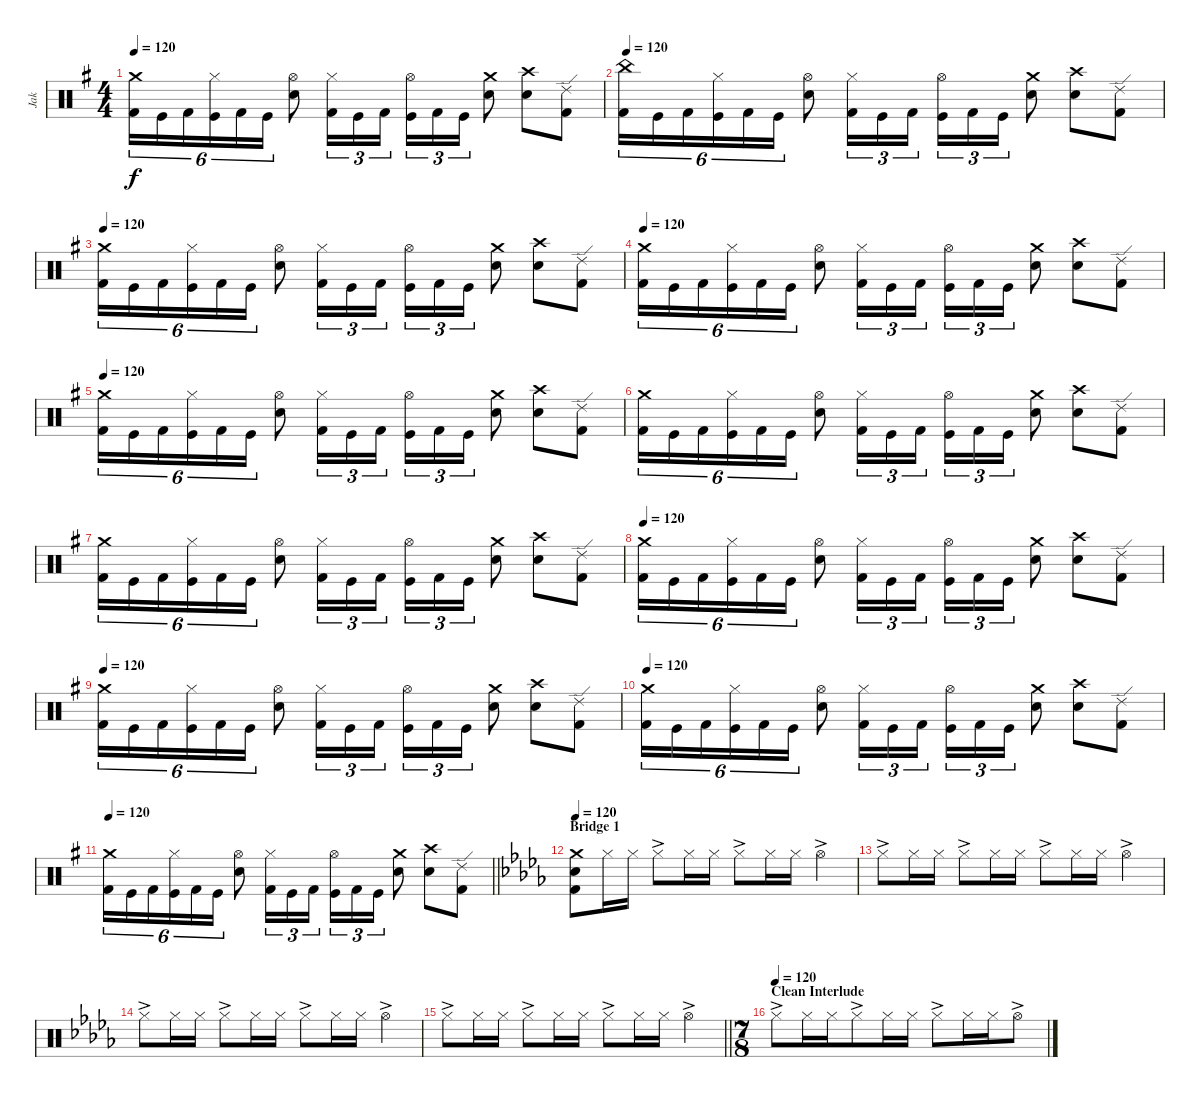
\track ("Jak" "Jak") {instrument percussion}
\staff {score}
\articulation defaults
\ts (4 4)
\tempo 120
\clef neutral
\ks eminor
("Crash medium (hit)" "Kick (hit) 2").16{tu (6 4) dy f} "Kick (hit)".16{tu (6 4)} "Kick (hit) 2".16{tu (6 4)} ("Hi-Hat (closed)" "Kick (hit)").16{tu (6 4)} "Kick (hit) 2".16{tu (6 4)} "Kick (hit)".16{tu (6 4)} ("Hi-Hat (open)" "Snare (hit) 2").8 ("Hi-Hat (closed)" "Kick (hit) 2").16{tu (3 2)} "Kick (hit)".16{tu (3 2)} "Kick (hit) 2".16{tu (3 2)} ("Hi-Hat (open)" "Kick (hit)").16{tu (3 2)} "Kick (hit) 2".16{tu (3 2)} "Kick (hit)".16{tu (3 2)} ("Crash medium (hit)" "Snare (hit) 2").8 ("Crash high (hit)" "Snare (hit) 2").8 ("Ride (edge) 2" "Kick (hit) 2").8 |
\tempo 120
("China (hit)" "Kick (hit) 2").16{tu (6 4)} "Kick (hit)".16{tu (6 4)} "Kick (hit) 2".16{tu (6 4)} ("Hi-Hat (closed)" "Kick (hit)").16{tu (6 4)} "Kick (hit) 2".16{tu (6 4)} "Kick (hit)".16{tu (6 4)} ("Hi-Hat (open)" "Snare (hit) 2").8 ("Hi-Hat (closed)" "Kick (hit) 2").16{tu (3 2)} "Kick (hit)".16{tu (3 2)} "Kick (hit) 2".16{tu (3 2)} ("Hi-Hat (open)" "Kick (hit)").16{tu (3 2)} "Kick (hit) 2".16{tu (3 2)} "Kick (hit)".16{tu (3 2)} ("Crash medium (hit)" "Snare (hit) 2").8 ("Crash high (hit)" "Snare (hit) 2").8 ("Ride (edge) 2" "Kick (hit) 2").8 |
\tempo 120
("Crash medium (hit)" "Kick (hit) 2").16{tu (6 4)} "Kick (hit)".16{tu (6 4)} "Kick (hit) 2".16{tu (6 4)} ("Hi-Hat (closed)" "Kick (hit)").16{tu (6 4)} "Kick (hit) 2".16{tu (6 4)} "Kick (hit)".16{tu (6 4)} ("Hi-Hat (open)" "Snare (hit) 2").8 ("Hi-Hat (closed)" "Kick (hit) 2").16{tu (3 2)} "Kick (hit)".16{tu (3 2)} "Kick (hit) 2".16{tu (3 2)} ("Hi-Hat (open)" "Kick (hit)").16{tu (3 2)} "Kick (hit) 2".16{tu (3 2)} "Kick (hit)".16{tu (3 2)} ("Crash medium (hit)" "Snare (hit) 2").8 ("Crash high (hit)" "Snare (hit) 2").8 ("Ride (edge) 2" "Kick (hit) 2").8 |
\tempo 120
("Crash medium (hit)" "Kick (hit) 2").16{tu (6 4)} "Kick (hit)".16{tu (6 4)} "Kick (hit) 2".16{tu (6 4)} ("Hi-Hat (closed)" "Kick (hit)").16{tu (6 4)} "Kick (hit) 2".16{tu (6 4)} "Kick (hit)".16{tu (6 4)} ("Hi-Hat (open)" "Snare (hit) 2").8 ("Hi-Hat (closed)" "Kick (hit) 2").16{tu (3 2)} "Kick (hit)".16{tu (3 2)} "Kick (hit) 2".16{tu (3 2)} ("Hi-Hat (open)" "Kick (hit)").16{tu (3 2)} "Kick (hit) 2".16{tu (3 2)} "Kick (hit)".16{tu (3 2)} ("Crash medium (hit)" "Snare (hit) 2").8 ("Crash high (hit)" "Snare (hit) 2").8 ("Ride (edge) 2" "Kick (hit) 2").8 |
\tempo 120
("Crash medium (hit)" "Kick (hit) 2").16{tu (6 4)} "Kick (hit)".16{tu (6 4)} "Kick (hit) 2".16{tu (6 4)} ("Hi-Hat (closed)" "Kick (hit)").16{tu (6 4)} "Kick (hit) 2".16{tu (6 4)} "Kick (hit)".16{tu (6 4)} ("Hi-Hat (open)" "Snare (hit) 2").8 ("Hi-Hat (closed)" "Kick (hit) 2").16{tu (3 2)} "Kick (hit)".16{tu (3 2)} "Kick (hit) 2".16{tu (3 2)} ("Hi-Hat (open)" "Kick (hit)").16{tu (3 2)} "Kick (hit) 2".16{tu (3 2)} "Kick (hit)".16{tu (3 2)} ("Crash medium (hit)" "Snare (hit) 2").8 ("Crash high (hit)" "Snare (hit) 2").8 ("Ride (edge) 2" "Kick (hit) 2").8 |
("Crash medium (hit)" "Kick (hit) 2").16{tu (6 4)} "Kick (hit)".16{tu (6 4)} "Kick (hit) 2".16{tu (6 4)} ("Hi-Hat (closed)" "Kick (hit)").16{tu (6 4)} "Kick (hit) 2".16{tu (6 4)} "Kick (hit)".16{tu (6 4)} ("Hi-Hat (open)" "Snare (hit) 2").8 ("Hi-Hat (closed)" "Kick (hit) 2").16{tu (3 2)} "Kick (hit)".16{tu (3 2)} "Kick (hit) 2".16{tu (3 2)} ("Hi-Hat (open)" "Kick (hit)").16{tu (3 2)} "Kick (hit) 2".16{tu (3 2)} "Kick (hit)".16{tu (3 2)} ("Crash medium (hit)" "Snare (hit) 2").8 ("Crash high (hit)" "Snare (hit) 2").8 ("Ride (edge) 2" "Kick (hit) 2").8 |
("Crash medium (hit)" "Kick (hit) 2").16{tu (6 4)} "Kick (hit)".16{tu (6 4)} "Kick (hit) 2".16{tu (6 4)} ("Hi-Hat (closed)" "Kick (hit)").16{tu (6 4)} "Kick (hit) 2".16{tu (6 4)} "Kick (hit)".16{tu (6 4)} ("Hi-Hat (open)" "Snare (hit) 2").8 ("Hi-Hat (closed)" "Kick (hit) 2").16{tu (3 2)} "Kick (hit)".16{tu (3 2)} "Kick (hit) 2".16{tu (3 2)} ("Hi-Hat (open)" "Kick (hit)").16{tu (3 2)} "Kick (hit) 2".16{tu (3 2)} "Kick (hit)".16{tu (3 2)} ("Crash medium (hit)" "Snare (hit) 2").8 ("Crash high (hit)" "Snare (hit) 2").8 ("Ride (edge) 2" "Kick (hit) 2").8 |
\tempo 120
("Crash medium (hit)" "Kick (hit) 2").16{tu (6 4)} "Kick (hit)".16{tu (6 4)} "Kick (hit) 2".16{tu (6 4)} ("Hi-Hat (closed)" "Kick (hit)").16{tu (6 4)} "Kick (hit) 2".16{tu (6 4)} "Kick (hit)".16{tu (6 4)} ("Hi-Hat (open)" "Snare (hit) 2").8 ("Hi-Hat (closed)" "Kick (hit) 2").16{tu (3 2)} "Kick (hit)".16{tu (3 2)} "Kick (hit) 2".16{tu (3 2)} ("Hi-Hat (open)" "Kick (hit)").16{tu (3 2)} "Kick (hit) 2".16{tu (3 2)} "Kick (hit)".16{tu (3 2)} ("Crash medium (hit)" "Snare (hit) 2").8 ("Crash high (hit)" "Snare (hit) 2").8 ("Ride (edge) 2" "Kick (hit) 2").8 |
\tempo 120
("Crash medium (hit)" "Kick (hit) 2").16{tu (6 4)} "Kick (hit)".16{tu (6 4)} "Kick (hit) 2".16{tu (6 4)} ("Hi-Hat (closed)" "Kick (hit)").16{tu (6 4)} "Kick (hit) 2".16{tu (6 4)} "Kick (hit)".16{tu (6 4)} ("Hi-Hat (open)" "Snare (hit) 2").8 ("Hi-Hat (closed)" "Kick (hit) 2").16{tu (3 2)} "Kick (hit)".16{tu (3 2)} "Kick (hit) 2".16{tu (3 2)} ("Hi-Hat (open)" "Kick (hit)").16{tu (3 2)} "Kick (hit) 2".16{tu (3 2)} "Kick (hit)".16{tu (3 2)} ("Crash medium (hit)" "Snare (hit) 2").8 ("Crash high (hit)" "Snare (hit) 2").8 ("Ride (edge) 2" "Kick (hit) 2").8 |
\tempo 120
("Crash medium (hit)" "Kick (hit) 2").16{tu (6 4)} "Kick (hit)".16{tu (6 4)} "Kick (hit) 2".16{tu (6 4)} ("Hi-Hat (closed)" "Kick (hit)").16{tu (6 4)} "Kick (hit) 2".16{tu (6 4)} "Kick (hit)".16{tu (6 4)} ("Hi-Hat (open)" "Snare (hit) 2").8 ("Hi-Hat (closed)" "Kick (hit) 2").16{tu (3 2)} "Kick (hit)".16{tu (3 2)} "Kick (hit) 2".16{tu (3 2)} ("Hi-Hat (open)" "Kick (hit)").16{tu (3 2)} "Kick (hit) 2".16{tu (3 2)} "Kick (hit)".16{tu (3 2)} ("Crash medium (hit)" "Snare (hit) 2").8 ("Crash high (hit)" "Snare (hit) 2").8 ("Ride (edge) 2" "Kick (hit) 2").8 |
\tempo 120
\barLineRight lightlight
("Crash medium (hit)" "Kick (hit) 2").16{tu (6 4)} "Kick (hit)".16{tu (6 4)} "Kick (hit) 2".16{tu (6 4)} ("Hi-Hat (closed)" "Kick (hit)").16{tu (6 4)} "Kick (hit) 2".16{tu (6 4)} "Kick (hit)".16{tu (6 4)} ("Hi-Hat (open)" "Snare (hit) 2").8 ("Hi-Hat (closed)" "Kick (hit) 2").16{tu (3 2)} "Kick (hit)".16{tu (3 2)} "Kick (hit) 2".16{tu (3 2)} ("Hi-Hat (open)" "Kick (hit)").16{tu (3 2)} "Kick (hit) 2".16{tu (3 2)} "Kick (hit)".16{tu (3 2)} ("Crash medium (hit)" "Snare (hit) 2").8 ("Crash high (hit)" "Snare (hit) 2").8 ("Ride (edge) 2" "Kick (hit) 2").8 |
\section ("" "Bridge 1")
\tempo 120
\ks bbminor
("Crash medium (hit)" "Snare (hit) 2" "Kick (hit) 2").8 "Hi-Hat (closed)".16 "Hi-Hat (closed)".16 "Hi-Hat (closed)"{ac}.8 "Hi-Hat (closed)".16 "Hi-Hat (closed)".16 "Hi-Hat (closed)"{ac}.8 "Hi-Hat (closed)".16 "Hi-Hat (closed)".16 "Hi-Hat (open)"{ac}.4 |
"Hi-Hat (closed)"{ac}.8 "Hi-Hat (closed)".16 "Hi-Hat (closed)".16 "Hi-Hat (closed)"{ac}.8 "Hi-Hat (closed)".16 "Hi-Hat (closed)".16 "Hi-Hat (closed)"{ac}.8 "Hi-Hat (closed)".16 "Hi-Hat (closed)".16 "Hi-Hat (open)"{ac}.4 |
"Hi-Hat (closed)"{ac}.8 "Hi-Hat (closed)".16 "Hi-Hat (closed)".16 "Hi-Hat (closed)"{ac}.8 "Hi-Hat (closed)".16 "Hi-Hat (closed)".16 "Hi-Hat (closed)"{ac}.8 "Hi-Hat (closed)".16 "Hi-Hat (closed)".16 "Hi-Hat (open)"{ac}.4 |
\barLineRight lightlight "Hi-Hat (closed)"{ac}.8 "Hi-Hat (closed)".16 "Hi-Hat (closed)".16 "Hi-Hat (closed)"{ac}.8 "Hi-Hat (closed)".16 "Hi-Hat (closed)".16 "Hi-Hat (closed)"{ac}.8 "Hi-Hat (closed)".16 "Hi-Hat (closed)".16 "Hi-Hat (open)"{ac}.4
|
\ts (7 8)
\section ("" "Clean Interlude")
\tempo (120)
"Hi-Hat (closed)"{ac}.8 "Hi-Hat (closed)".16 "Hi-Hat (closed)".16 "Hi-Hat (closed)"{ac}.8 "Hi-Hat (closed)".16 "Hi-Hat (closed)".16 "Hi-Hat (closed)"{ac}.8 "Hi-Hat (closed)".16 "Hi-Hat (closed)".16 "Hi-Hat (open)"{ac}.8
